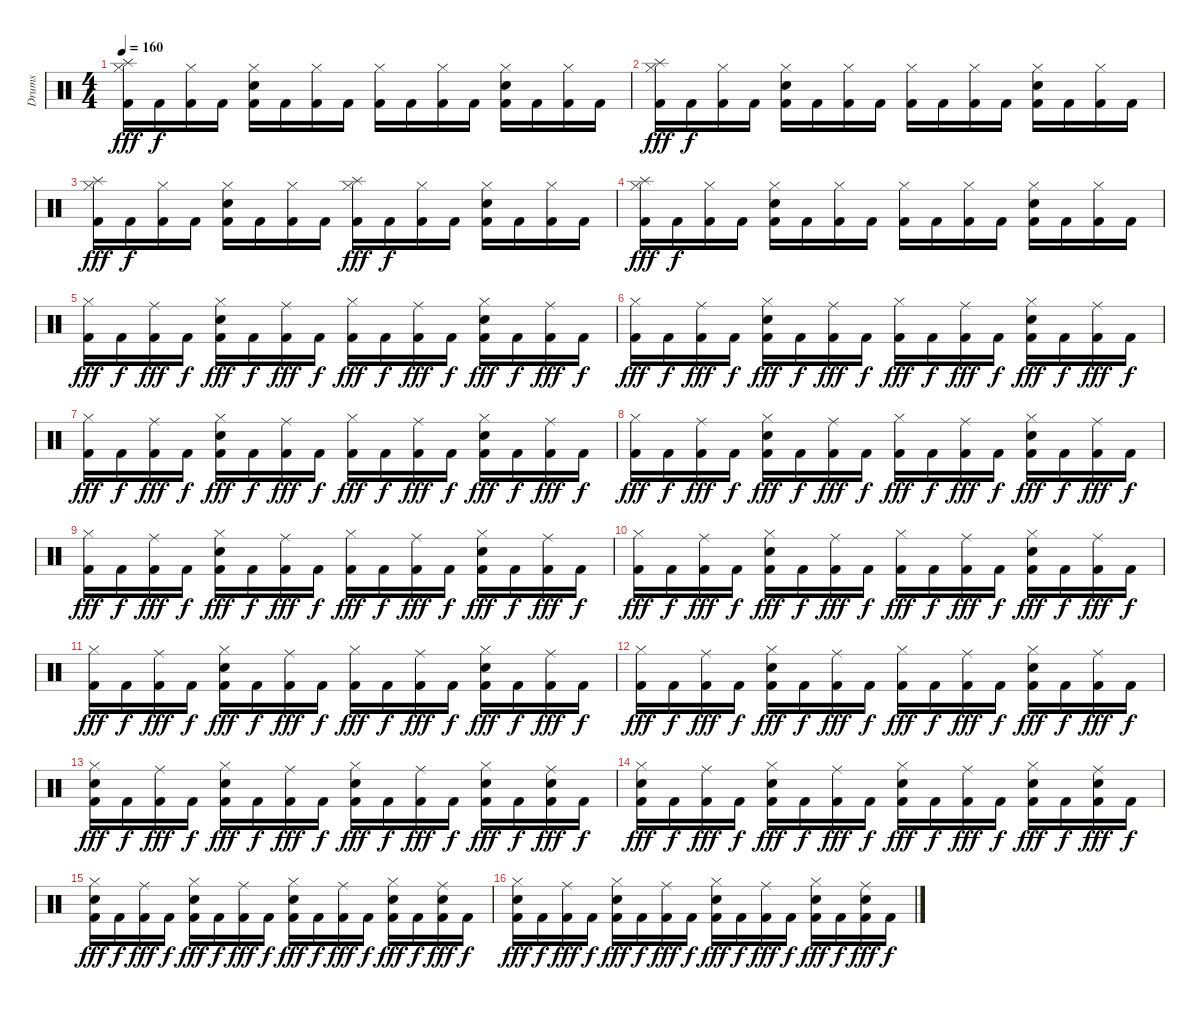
\track ("Drums" "Drums") {instrument percussion}
\staff {score}
\articulation defaults
\ts (4 4)
\tempo 160
\clef neutral
\ks c
("Splash (hit)" "Hi-Hat (closed)" "Kick (hit) 2").16{dy fff} "Kick (hit) 2".16{dy f} ("Hi-Hat (closed)" "Kick (hit) 2").16 "Kick (hit) 2".16 ("Hi-Hat (closed)" "Snare (hit) 2" "Kick (hit) 2").16 "Kick (hit) 2".16 ("Hi-Hat (closed)" "Kick (hit) 2").16 "Kick (hit) 2".16 ("Hi-Hat (closed)" "Kick (hit) 2").16 "Kick (hit) 2".16 ("Hi-Hat (closed)" "Kick (hit) 2").16 "Kick (hit) 2".16 ("Hi-Hat (closed)" "Snare (hit) 2" "Kick (hit) 2").16 "Kick (hit) 2".16 ("Hi-Hat (closed)" "Kick (hit) 2").16 "Kick (hit) 2".16 |
("Splash (hit)" "Hi-Hat (closed)" "Kick (hit) 2").16{dy fff} "Kick (hit) 2".16{dy f} ("Hi-Hat (closed)" "Kick (hit) 2").16 "Kick (hit) 2".16 ("Hi-Hat (closed)" "Snare (hit) 2" "Kick (hit) 2").16 "Kick (hit) 2".16 ("Hi-Hat (closed)" "Kick (hit) 2").16 "Kick (hit) 2".16 ("Hi-Hat (closed)" "Kick (hit) 2").16 "Kick (hit) 2".16 ("Hi-Hat (closed)" "Kick (hit) 2").16 "Kick (hit) 2".16 ("Hi-Hat (closed)" "Snare (hit) 2" "Kick (hit) 2").16 "Kick (hit) 2".16 ("Hi-Hat (closed)" "Kick (hit) 2").16 "Kick (hit) 2".16 |
("Splash (hit)" "Hi-Hat (closed)" "Kick (hit) 2").16{dy fff} "Kick (hit) 2".16{dy f} ("Hi-Hat (closed)" "Kick (hit) 2").16 "Kick (hit) 2".16 ("Hi-Hat (closed)" "Snare (hit) 2" "Kick (hit) 2").16 "Kick (hit) 2".16 ("Hi-Hat (closed)" "Kick (hit) 2").16 "Kick (hit) 2".16 ("Splash (hit)" "Hi-Hat (closed)" "Kick (hit) 2").16{dy fff} "Kick (hit) 2".16{dy f} ("Hi-Hat (closed)" "Kick (hit) 2").16 "Kick (hit) 2".16 ("Hi-Hat (closed)" "Snare (hit) 2" "Kick (hit) 2").16 "Kick (hit) 2".16 ("Hi-Hat (closed)" "Kick (hit) 2").16 "Kick (hit) 2".16 |
("Splash (hit)" "Hi-Hat (closed)" "Kick (hit) 2").16{dy fff} "Kick (hit) 2".16{dy f} ("Hi-Hat (closed)" "Kick (hit) 2").16 "Kick (hit) 2".16 ("Hi-Hat (closed)" "Snare (hit) 2" "Kick (hit) 2").16 "Kick (hit) 2".16 ("Hi-Hat (closed)" "Kick (hit) 2").16 "Kick (hit) 2".16 ("Hi-Hat (closed)" "Kick (hit) 2").16 "Kick (hit) 2".16 ("Hi-Hat (closed)" "Kick (hit) 2").16 "Kick (hit) 2".16 ("Hi-Hat (closed)" "Snare (hit) 2" "Kick (hit) 2").16 "Kick (hit) 2".16 ("Hi-Hat (closed)" "Kick (hit) 2").16 "Kick (hit) 2".16 |
("Hi-Hat (closed)" "Kick (hit) 2").16{dy fff} "Kick (hit) 2".16{dy f} ("Ride (middle)" "Kick (hit) 2").16{dy fff} "Kick (hit) 2".16{dy f} ("Hi-Hat (closed)" "Snare (hit) 2" "Kick (hit) 2").16{dy fff} "Kick (hit) 2".16{dy f} ("Ride (middle)" "Kick (hit) 2").16{dy fff} "Kick (hit) 2".16{dy f} ("Hi-Hat (closed)" "Kick (hit) 2").16{dy fff} "Kick (hit) 2".16{dy f} ("Ride (middle)" "Kick (hit) 2").16{dy fff} "Kick (hit) 2".16{dy f} ("Hi-Hat (closed)" "Snare (hit) 2" "Kick (hit) 2").16{dy fff} "Kick (hit) 2".16{dy f} ("Ride (middle)" "Kick (hit) 2").16{dy fff} "Kick (hit) 2".16{dy f} |
("Hi-Hat (closed)" "Kick (hit) 2").16{dy fff} "Kick (hit) 2".16{dy f} ("Ride (middle)" "Kick (hit) 2").16{dy fff} "Kick (hit) 2".16{dy f} ("Hi-Hat (closed)" "Snare (hit) 2" "Kick (hit) 2").16{dy fff} "Kick (hit) 2".16{dy f} ("Ride (middle)" "Kick (hit) 2").16{dy fff} "Kick (hit) 2".16{dy f} ("Hi-Hat (closed)" "Kick (hit) 2").16{dy fff} "Kick (hit) 2".16{dy f} ("Ride (middle)" "Kick (hit) 2").16{dy fff} "Kick (hit) 2".16{dy f} ("Hi-Hat (closed)" "Snare (hit) 2" "Kick (hit) 2").16{dy fff} "Kick (hit) 2".16{dy f} ("Ride (middle)" "Kick (hit) 2").16{dy fff} "Kick (hit) 2".16{dy f} |
("Hi-Hat (closed)" "Kick (hit) 2").16{dy fff} "Kick (hit) 2".16{dy f} ("Ride (middle)" "Kick (hit) 2").16{dy fff} "Kick (hit) 2".16{dy f} ("Hi-Hat (closed)" "Snare (hit) 2" "Kick (hit) 2").16{dy fff} "Kick (hit) 2".16{dy f} ("Ride (middle)" "Kick (hit) 2").16{dy fff} "Kick (hit) 2".16{dy f} ("Hi-Hat (closed)" "Kick (hit) 2").16{dy fff} "Kick (hit) 2".16{dy f} ("Ride (middle)" "Kick (hit) 2").16{dy fff} "Kick (hit) 2".16{dy f} ("Hi-Hat (closed)" "Snare (hit) 2" "Kick (hit) 2").16{dy fff} "Kick (hit) 2".16{dy f} ("Ride (middle)" "Kick (hit) 2").16{dy fff} "Kick (hit) 2".16{dy f} |
("Hi-Hat (closed)" "Kick (hit) 2").16{dy fff} "Kick (hit) 2".16{dy f} ("Ride (middle)" "Kick (hit) 2").16{dy fff} "Kick (hit) 2".16{dy f} ("Hi-Hat (closed)" "Snare (hit) 2" "Kick (hit) 2").16{dy fff} "Kick (hit) 2".16{dy f} ("Ride (middle)" "Kick (hit) 2").16{dy fff} "Kick (hit) 2".16{dy f} ("Hi-Hat (closed)" "Kick (hit) 2").16{dy fff} "Kick (hit) 2".16{dy f} ("Ride (middle)" "Kick (hit) 2").16{dy fff} "Kick (hit) 2".16{dy f} ("Hi-Hat (closed)" "Snare (hit) 2" "Kick (hit) 2").16{dy fff} "Kick (hit) 2".16{dy f} ("Ride (middle)" "Kick (hit) 2").16{dy fff} "Kick (hit) 2".16{dy f} |
("Hi-Hat (closed)" "Kick (hit) 2").16{dy fff} "Kick (hit) 2".16{dy f} ("Ride (middle)" "Kick (hit) 2").16{dy fff} "Kick (hit) 2".16{dy f} ("Hi-Hat (closed)" "Snare (hit) 2" "Kick (hit) 2").16{dy fff} "Kick (hit) 2".16{dy f} ("Ride (middle)" "Kick (hit) 2").16{dy fff} "Kick (hit) 2".16{dy f} ("Hi-Hat (closed)" "Kick (hit) 2").16{dy fff} "Kick (hit) 2".16{dy f} ("Ride (middle)" "Kick (hit) 2").16{dy fff} "Kick (hit) 2".16{dy f} ("Hi-Hat (closed)" "Snare (hit) 2" "Kick (hit) 2").16{dy fff} "Kick (hit) 2".16{dy f} ("Ride (middle)" "Kick (hit) 2").16{dy fff} "Kick (hit) 2".16{dy f} |
("Hi-Hat (closed)" "Kick (hit) 2").16{dy fff} "Kick (hit) 2".16{dy f} ("Ride (middle)" "Kick (hit) 2").16{dy fff} "Kick (hit) 2".16{dy f} ("Hi-Hat (closed)" "Snare (hit) 2" "Kick (hit) 2").16{dy fff} "Kick (hit) 2".16{dy f} ("Ride (middle)" "Kick (hit) 2").16{dy fff} "Kick (hit) 2".16{dy f} ("Hi-Hat (closed)" "Kick (hit) 2").16{dy fff} "Kick (hit) 2".16{dy f} ("Ride (middle)" "Kick (hit) 2").16{dy fff} "Kick (hit) 2".16{dy f} ("Hi-Hat (closed)" "Snare (hit) 2" "Kick (hit) 2").16{dy fff} "Kick (hit) 2".16{dy f} ("Ride (middle)" "Kick (hit) 2").16{dy fff} "Kick (hit) 2".16{dy f} |
("Hi-Hat (closed)" "Kick (hit) 2").16{dy fff} "Kick (hit) 2".16{dy f} ("Ride (middle)" "Kick (hit) 2").16{dy fff} "Kick (hit) 2".16{dy f} ("Hi-Hat (closed)" "Snare (hit) 2" "Kick (hit) 2").16{dy fff} "Kick (hit) 2".16{dy f} ("Ride (middle)" "Kick (hit) 2").16{dy fff} "Kick (hit) 2".16{dy f} ("Hi-Hat (closed)" "Kick (hit) 2").16{dy fff} "Kick (hit) 2".16{dy f} ("Ride (middle)" "Kick (hit) 2").16{dy fff} "Kick (hit) 2".16{dy f} ("Hi-Hat (closed)" "Snare (hit) 2" "Kick (hit) 2").16{dy fff} "Kick (hit) 2".16{dy f} ("Ride (middle)" "Kick (hit) 2").16{dy fff} "Kick (hit) 2".16{dy f} |
("Hi-Hat (closed)" "Kick (hit) 2").16{dy fff} "Kick (hit) 2".16{dy f} ("Ride (middle)" "Kick (hit) 2").16{dy fff} "Kick (hit) 2".16{dy f} ("Hi-Hat (closed)" "Snare (hit) 2" "Kick (hit) 2").16{dy fff} "Kick (hit) 2".16{dy f} ("Ride (middle)" "Kick (hit) 2").16{dy fff} "Kick (hit) 2".16{dy f} ("Hi-Hat (closed)" "Kick (hit) 2").16{dy fff} "Kick (hit) 2".16{dy f} ("Ride (middle)" "Kick (hit) 2").16{dy fff} "Kick (hit) 2".16{dy f} ("Hi-Hat (closed)" "Snare (hit) 2" "Kick (hit) 2").16{dy fff} "Kick (hit) 2".16{dy f} ("Ride (middle)" "Kick (hit) 2").16{dy fff} "Kick (hit) 2".16{dy f} |
("Hi-Hat (closed)" "Snare (hit) 2" "Kick (hit) 2").16{dy fff} "Kick (hit) 2".16{dy f} ("Ride (middle)" "Kick (hit) 2").16{dy fff} "Kick (hit) 2".16{dy f} ("Hi-Hat (closed)" "Snare (hit) 2" "Kick (hit) 2").16{dy fff} "Kick (hit) 2".16{dy f} ("Ride (middle)" "Kick (hit) 2").16{dy fff} "Kick (hit) 2".16{dy f} ("Hi-Hat (closed)" "Snare (hit) 2" "Kick (hit) 2").16{dy fff} "Kick (hit) 2".16{dy f} ("Ride (middle)" "Kick (hit) 2").16{dy fff} "Kick (hit) 2".16{dy f} ("Hi-Hat (closed)" "Snare (hit) 2" "Kick (hit) 2").16{dy fff} "Kick (hit) 2".16{dy f} ("Ride (middle)" "Snare (hit) 2" "Kick (hit) 2").16{dy fff} "Kick (hit) 2".16{dy f} |
("Hi-Hat (closed)" "Snare (hit) 2" "Kick (hit) 2").16{dy fff} "Kick (hit) 2".16{dy f} ("Ride (middle)" "Kick (hit) 2").16{dy fff} "Kick (hit) 2".16{dy f} ("Hi-Hat (closed)" "Snare (hit) 2" "Kick (hit) 2").16{dy fff} "Kick (hit) 2".16{dy f} ("Ride (middle)" "Kick (hit) 2").16{dy fff} "Kick (hit) 2".16{dy f} ("Hi-Hat (closed)" "Snare (hit) 2" "Kick (hit) 2").16{dy fff} "Kick (hit) 2".16{dy f} ("Ride (middle)" "Kick (hit) 2").16{dy fff} "Kick (hit) 2".16{dy f} ("Hi-Hat (closed)" "Snare (hit) 2" "Kick (hit) 2").16{dy fff} "Kick (hit) 2".16{dy f} ("Ride (middle)" "Snare (hit) 2" "Kick (hit) 2").16{dy fff} "Kick (hit) 2".16{dy f} |
("Hi-Hat (closed)" "Snare (hit) 2" "Kick (hit) 2").16{dy fff} "Kick (hit) 2".16{dy f} ("Ride (middle)" "Kick (hit) 2").16{dy fff} "Kick (hit) 2".16{dy f} ("Hi-Hat (closed)" "Snare (hit) 2" "Kick (hit) 2").16{dy fff} "Kick (hit) 2".16{dy f} ("Ride (middle)" "Kick (hit) 2").16{dy fff} "Kick (hit) 2".16{dy f} ("Hi-Hat (closed)" "Snare (hit) 2" "Kick (hit) 2").16{dy fff} "Kick (hit) 2".16{dy f} ("Ride (middle)" "Kick (hit) 2").16{dy fff} "Kick (hit) 2".16{dy f} ("Hi-Hat (closed)" "Snare (hit) 2" "Kick (hit) 2").16{dy fff} "Kick (hit) 2".16{dy f} ("Ride (middle)" "Snare (hit) 2" "Kick (hit) 2").16{dy fff} "Kick (hit) 2".16{dy f} |
("Hi-Hat (closed)" "Snare (hit) 2" "Kick (hit) 2").16{dy fff} "Kick (hit) 2".16{dy f} ("Ride (middle)" "Kick (hit) 2").16{dy fff} "Kick (hit) 2".16{dy f} ("Hi-Hat (closed)" "Snare (hit) 2" "Kick (hit) 2").16{dy fff} "Kick (hit) 2".16{dy f} ("Ride (middle)" "Kick (hit) 2").16{dy fff} "Kick (hit) 2".16{dy f} ("Hi-Hat (closed)" "Snare (hit) 2" "Kick (hit) 2").16{dy fff} "Kick (hit) 2".16{dy f} ("Ride (middle)" "Kick (hit) 2").16{dy fff} "Kick (hit) 2".16{dy f} ("Hi-Hat (closed)" "Snare (hit) 2" "Kick (hit) 2").16{dy fff} "Kick (hit) 2".16{dy f} ("Ride (middle)" "Snare (hit) 2" "Kick (hit) 2").16{dy fff} "Kick (hit) 2".16{dy f}
